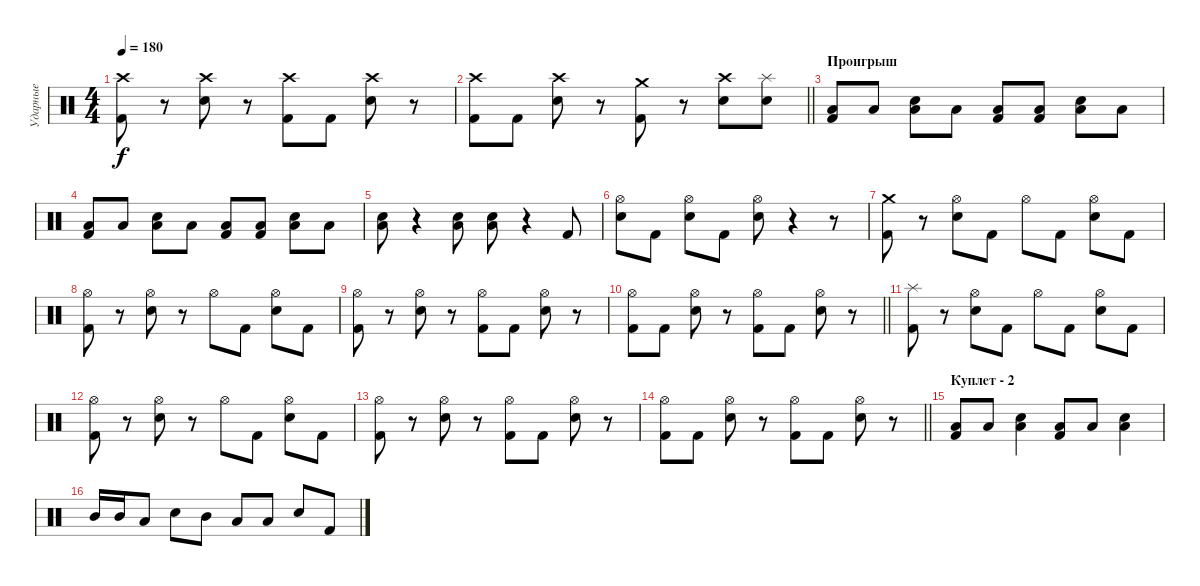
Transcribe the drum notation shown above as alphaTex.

\track ("Ударные" "Ударные") {instrument percussion}
\staff {score}
\articulation defaults
\ts (4 4)
\tempo 180
\clef neutral
\ks c
("Crash high (hit)" "Kick (hit) 2").8{dy f} r.8 ("Crash high (hit)" "Snare (hit) 2").8 r.8 ("Crash high (hit)" "Kick (hit) 2").8 "Kick (hit) 2".8 ("Crash high (hit)" "Snare (hit) 2").8 r.8 |
\barLineRight lightlight
("Crash high (hit)" "Kick (hit) 2").8 "Kick (hit) 2".8 ("Crash high (hit)" "Snare (hit) 2").8 r.8 ("Crash medium (hit)" "Kick (hit) 2").8 r.8 ("Crash high (hit)" "Snare (hit) 2").8 ("Splash (hit)" "Snare (hit) 2").8 |
\section ("" "Проигрыш")
("Low Floor Tom (hit)" "Kick (hit) 2").8 "Low Floor Tom (hit)".8 ("Low Floor Tom (hit)" "Snare (hit) 2").8 "Low Floor Tom (hit)".8 ("Low Floor Tom (hit)" "Kick (hit) 2").8 ("Low Floor Tom (hit)" "Kick (hit) 2").8 ("Low Floor Tom (hit)" "Snare (hit) 2").8 "Low Floor Tom (hit)".8 |
("Low Floor Tom (hit)" "Kick (hit) 2").8 "Low Floor Tom (hit)".8 ("Low Floor Tom (hit)" "Snare (hit) 2").8 "Low Floor Tom (hit)".8 ("Low Floor Tom (hit)" "Kick (hit) 2").8 ("Low Floor Tom (hit)" "Kick (hit) 2").8 ("Low Floor Tom (hit)" "Snare (hit) 2").8 "Low Floor Tom (hit)".8 |
("Low Floor Tom (hit)" "Snare (hit) 2").8 r.4 ("Low Floor Tom (hit)" "Snare (hit) 2").8 ("Low Floor Tom (hit)" "Snare (hit) 2").8 r.4 "Kick (hit) 2".8 |
("Hi-Hat (open)" "Snare (hit) 2").8 "Kick (hit) 2".8 ("Hi-Hat (open)" "Snare (hit) 2").8 "Kick (hit) 2".8 ("Hi-Hat (open)" "Snare (hit) 2").8 r.4 r.8 |
("Crash medium (hit)" "Kick (hit) 2").8 r.8 ("Hi-Hat (open)" "Snare (hit) 2").8 "Kick (hit) 2".8 "Hi-Hat (open)".8 "Kick (hit) 2".8 ("Hi-Hat (open)" "Snare (hit) 2").8 "Kick (hit) 2".8 |
("Hi-Hat (open)" "Kick (hit) 2").8 r.8 ("Hi-Hat (open)" "Snare (hit) 2").8 r.8 "Hi-Hat (open)".8 "Kick (hit) 2".8 ("Hi-Hat (open)" "Snare (hit) 2").8 "Kick (hit) 2".8 |
("Hi-Hat (open)" "Kick (hit) 2").8 r.8 ("Hi-Hat (open)" "Snare (hit) 2").8 r.8 ("Hi-Hat (open)" "Kick (hit) 2").8 "Kick (hit) 2".8 ("Hi-Hat (open)" "Snare (hit) 2").8 r.8 |
\barLineRight lightlight
("Hi-Hat (open)" "Kick (hit) 2").8 "Kick (hit) 2".8 ("Hi-Hat (open)" "Snare (hit) 2").8 r.8 ("Hi-Hat (open)" "Kick (hit) 2").8 "Kick (hit) 2".8 ("Hi-Hat (open)" "Snare (hit) 2").8 r.8 |
("Splash (hit)" "Kick (hit) 2").8 r.8 ("Hi-Hat (open)" "Snare (hit) 2").8 "Kick (hit) 2".8 "Hi-Hat (open)".8 "Kick (hit) 2".8 ("Hi-Hat (open)" "Snare (hit) 2").8 "Kick (hit) 2".8 |
("Hi-Hat (open)" "Kick (hit) 2").8 r.8 ("Hi-Hat (open)" "Snare (hit) 2").8 r.8 "Hi-Hat (open)".8 "Kick (hit) 2".8 ("Hi-Hat (open)" "Snare (hit) 2").8 "Kick (hit) 2".8 |
("Hi-Hat (open)" "Kick (hit) 2").8 r.8 ("Hi-Hat (open)" "Snare (hit) 2").8 r.8 ("Hi-Hat (open)" "Kick (hit) 2").8 "Kick (hit) 2".8 ("Hi-Hat (open)" "Snare (hit) 2").8 r.8 |
\barLineRight lightlight
("Hi-Hat (open)" "Kick (hit) 2").8 "Kick (hit) 2".8 ("Hi-Hat (open)" "Snare (hit) 2").8 r.8 ("Hi-Hat (open)" "Kick (hit) 2").8 "Kick (hit) 2".8 ("Hi-Hat (open)" "Snare (hit) 2").8 r.8 |
\section ("" "Куплет - 2")
("Low Floor Tom (hit)" "Kick (hit) 2").8 "Low Tom (hit)".8 ("Low Floor Tom (hit)" "Snare (hit) 2").4 ("Low Floor Tom (hit)" "Kick (hit) 2").8 "Low Tom (hit)".8 ("Low Floor Tom (hit)" "Snare (hit) 2").4 |
"Mid Tom (hit)".16 "Mid Tom (hit)".16 "Low Tom (hit)".8 "Snare (hit) 2".8 "Mid Tom (hit)".8 "Low Tom (hit)".8 "Low Tom (hit)".8 "Snare (hit) 2".8 "Kick (hit) 2".8
